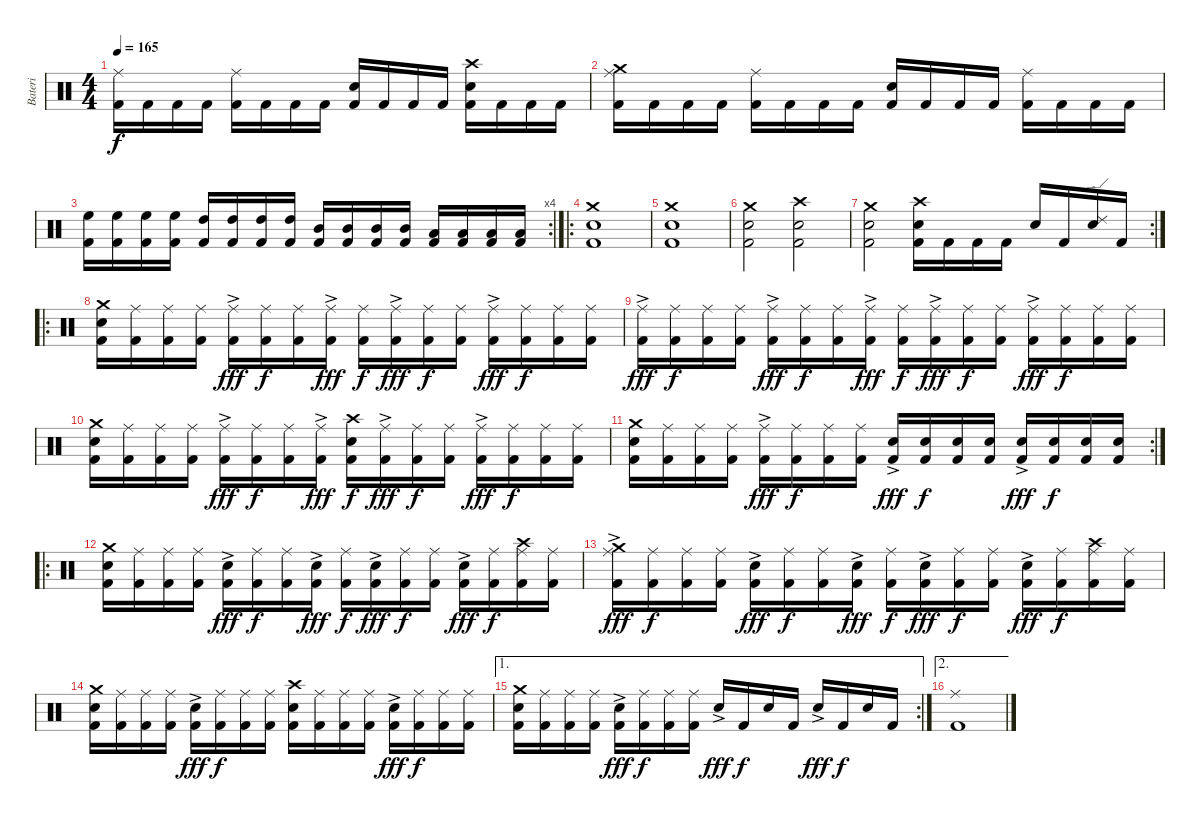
\track ("Bateri" "Bateri") {instrument percussion}
\staff {score}
\articulation defaults
\ts (4 4)
\tempo 165
\clef neutral
\ks c
("Ride (middle)" "Kick (hit) 2").16{dy f} "Kick (hit) 2".16 "Kick (hit) 2".16 "Kick (hit) 2".16 ("Ride (middle)" "Kick (hit) 2").16 "Kick (hit) 2".16 "Kick (hit) 2".16 "Kick (hit) 2".16 ("Snare (hit) 2" "Kick (hit) 2").16 "Kick (hit) 2".16 "Kick (hit) 2".16 "Kick (hit) 2".16 ("Crash high (hit)" "Snare (hit) 2" "Kick (hit) 2").16 "Kick (hit) 2".16 "Kick (hit) 2".16 "Kick (hit) 2".16 |
("Crash medium (hit)" "Ride (middle)" "Kick (hit) 2").16 "Kick (hit) 2".16 "Kick (hit) 2".16 "Kick (hit) 2".16 ("Ride (middle)" "Kick (hit) 2").16 "Kick (hit) 2".16 "Kick (hit) 2".16 "Kick (hit) 2".16 ("Snare (hit) 2" "Kick (hit) 2").16 "Kick (hit) 2".16 "Kick (hit) 2".16 "Kick (hit) 2".16 ("Ride (middle)" "Kick (hit) 2").16 "Kick (hit) 2".16 "Kick (hit) 2".16 "Kick (hit) 2".16 |
\rc 4
("High Floor Tom (hit)" "Kick (hit) 2").16 ("High Floor Tom (hit)" "Kick (hit) 2").16 ("High Floor Tom (hit)" "Kick (hit) 2").16 ("High Floor Tom (hit)" "Kick (hit) 2").16 ("High Tom (hit)" "Kick (hit) 2").16 ("High Tom (hit)" "Kick (hit) 2").16 ("High Tom (hit)" "Kick (hit) 2").16 ("High Tom (hit)" "Kick (hit) 2").16 ("Mid Tom (hit)" "Kick (hit) 2").16 ("Mid Tom (hit)" "Kick (hit) 2").16 ("Mid Tom (hit)" "Kick (hit) 2").16 ("Mid Tom (hit)" "Kick (hit) 2").16 ("Low Tom (hit)" "Kick (hit) 2").16 ("Low Tom (hit)" "Kick (hit) 2").16 ("Low Tom (hit)" "Kick (hit) 2").16 ("Low Tom (hit)" "Kick (hit) 2").16 |
\ro
("Crash medium (hit)" "Snare (hit) 2" "Kick (hit) 2").1 |
("Crash medium (hit)" "Snare (hit) 2" "Kick (hit) 2").1 |
("Crash medium (hit)" "Snare (hit) 2" "Kick (hit) 2").2 ("Crash high (hit)" "Snare (hit) 2" "Kick (hit) 2").2 |
\rc 2
("Crash medium (hit)" "Snare (hit) 2" "Kick (hit) 2").2 ("Crash high (hit)" "Snare (hit) 2" "Kick (hit) 2").16 "Kick (hit) 2".16 "Kick (hit) 2".16 "Kick (hit) 2".16 "Snare (hit) 2".16 "Kick (hit) 2".16 ("Ride (edge) 2" "Snare (hit) 2").16 "Kick (hit) 2".16 |
\ro
("Crash medium (hit)" "Snare (hit) 2" "Kick (hit) 2").16 ("Ride (middle)" "Kick (hit) 2").16 ("Ride (middle)" "Kick (hit) 2").16 ("Ride (middle)" "Kick (hit) 2").16 ("Ride (middle)"{ac} "Kick (hit) 2").16{dy fff} ("Ride (middle)" "Kick (hit) 2").16{dy f} ("Ride (middle)" "Kick (hit) 2").16 ("Ride (middle)"{ac} "Kick (hit) 2").16{dy fff} ("Ride (middle)" "Kick (hit) 2").16{dy f} ("Ride (middle)"{ac} "Kick (hit) 2").16{dy fff} ("Ride (middle)" "Kick (hit) 2").16{dy f} ("Ride (middle)" "Kick (hit) 2").16 ("Ride (middle)"{ac} "Kick (hit) 2").16{dy fff} ("Ride (middle)" "Kick (hit) 2").16{dy f} ("Ride (middle)" "Kick (hit) 2").16 ("Ride (middle)" "Kick (hit) 2").16 |
("Ride (middle)"{ac} "Kick (hit) 2").16{dy fff} ("Ride (middle)" "Kick (hit) 2").16{dy f} ("Ride (middle)" "Kick (hit) 2").16 ("Ride (middle)" "Kick (hit) 2").16 ("Ride (middle)"{ac} "Kick (hit) 2").16{dy fff} ("Ride (middle)" "Kick (hit) 2").16{dy f} ("Ride (middle)" "Kick (hit) 2").16 ("Ride (middle)"{ac} "Kick (hit) 2").16{dy fff} ("Ride (middle)" "Kick (hit) 2").16{dy f} ("Ride (middle)"{ac} "Kick (hit) 2").16{dy fff} ("Ride (middle)" "Kick (hit) 2").16{dy f} ("Ride (middle)" "Kick (hit) 2").16 ("Ride (middle)"{ac} "Kick (hit) 2").16{dy fff} ("Ride (middle)" "Kick (hit) 2").16{dy f} ("Ride (middle)" "Kick (hit) 2").16 ("Ride (middle)" "Kick (hit) 2").16 |
("Crash medium (hit)" "Snare (hit) 2" "Kick (hit) 2").16 ("Ride (middle)" "Kick (hit) 2").16 ("Ride (middle)" "Kick (hit) 2").16 ("Ride (middle)" "Kick (hit) 2").16 ("Ride (middle)"{ac} "Kick (hit) 2").16{dy fff} ("Ride (middle)" "Kick (hit) 2").16{dy f} ("Ride (middle)" "Kick (hit) 2").16 ("Ride (middle)"{ac} "Kick (hit) 2").16{dy fff} ("Crash high (hit)" "Snare (hit) 2" "Kick (hit) 2").16{dy f} ("Ride (middle)"{ac} "Kick (hit) 2").16{dy fff} ("Ride (middle)" "Kick (hit) 2").16{dy f} ("Ride (middle)" "Kick (hit) 2").16 ("Ride (middle)"{ac} "Kick (hit) 2").16{dy fff} ("Ride (middle)" "Kick (hit) 2").16{dy f} ("Ride (middle)" "Kick (hit) 2").16 ("Ride (middle)" "Kick (hit) 2").16 |
\rc 2
("Crash medium (hit)" "Snare (hit) 2" "Kick (hit) 2").16 ("Ride (middle)" "Kick (hit) 2").16 ("Ride (middle)" "Kick (hit) 2").16 ("Ride (middle)" "Kick (hit) 2").16 ("Ride (middle)"{ac} "Kick (hit) 2").16{dy fff} ("Ride (middle)" "Kick (hit) 2").16{dy f} ("Ride (middle)" "Kick (hit) 2").16 ("Ride (middle)" "Kick (hit) 2").16 ("Snare (hit) 2"{ac} "Kick (hit) 2").16{dy fff} ("Snare (hit) 2" "Kick (hit) 2").16{dy f} ("Snare (hit) 2" "Kick (hit) 2").16 ("Snare (hit) 2" "Kick (hit) 2").16 ("Snare (hit) 2"{ac} "Kick (hit) 2").16{dy fff} ("Snare (hit) 2" "Kick (hit) 2").16{dy f} ("Snare (hit) 2" "Kick (hit) 2").16 ("Snare (hit) 2" "Kick (hit) 2").16 |
\ro
("Crash medium (hit)" "Snare (hit) 2" "Kick (hit) 2").16 ("Ride (middle)" "Kick (hit) 2").16 ("Ride (middle)" "Kick (hit) 2").16 ("Ride (middle)" "Kick (hit) 2").16 ("Snare (hit) 2"{ac} "Kick (hit) 2").16{dy fff} ("Ride (middle)" "Kick (hit) 2").16{dy f} ("Ride (middle)" "Kick (hit) 2").16 ("Snare (hit) 2"{ac} "Kick (hit) 2").16{dy fff} ("Ride (middle)" "Kick (hit) 2").16{dy f} ("Snare (hit) 2"{ac} "Kick (hit) 2").16{dy fff} ("Ride (middle)" "Kick (hit) 2").16{dy f} ("Ride (middle)" "Kick (hit) 2").16 ("Snare (hit) 2"{ac} "Kick (hit) 2").16{dy fff} ("Ride (middle)" "Kick (hit) 2").16{dy f} ("Crash high (hit)" "Ride (middle)" "Kick (hit) 2").16 ("Ride (middle)" "Kick (hit) 2").16 |
("Crash medium (hit)" "Ride (middle)"{ac} "Kick (hit) 2").16{dy fff} ("Ride (middle)" "Kick (hit) 2").16{dy f} ("Ride (middle)" "Kick (hit) 2").16 ("Ride (middle)" "Kick (hit) 2").16 ("Snare (hit) 2"{ac} "Kick (hit) 2").16{dy fff} ("Ride (middle)" "Kick (hit) 2").16{dy f} ("Ride (middle)" "Kick (hit) 2").16 ("Snare (hit) 2"{ac} "Kick (hit) 2").16{dy fff} ("Ride (middle)" "Kick (hit) 2").16{dy f} ("Snare (hit) 2"{ac} "Kick (hit) 2").16{dy fff} ("Ride (middle)" "Kick (hit) 2").16{dy f} ("Ride (middle)" "Kick (hit) 2").16 ("Snare (hit) 2"{ac} "Kick (hit) 2").16{dy fff} ("Ride (middle)" "Kick (hit) 2").16{dy f} ("Crash high (hit)" "Ride (middle)" "Kick (hit) 2").16 ("Ride (middle)" "Kick (hit) 2").16 |
("Crash medium (hit)" "Snare (hit) 2" "Kick (hit) 2").16 ("Ride (middle)" "Kick (hit) 2").16 ("Ride (middle)" "Kick (hit) 2").16 ("Ride (middle)" "Kick (hit) 2").16 ("Snare (hit) 2"{ac} "Kick (hit) 2").16{dy fff} ("Ride (middle)" "Kick (hit) 2").16{dy f} ("Ride (middle)" "Kick (hit) 2").16 ("Ride (middle)" "Kick (hit) 2").16 ("Crash high (hit)" "Snare (hit) 2" "Kick (hit) 2").16 ("Ride (middle)" "Kick (hit) 2").16 ("Ride (middle)" "Kick (hit) 2").16 ("Ride (middle)" "Kick (hit) 2").16 ("Snare (hit) 2"{ac} "Kick (hit) 2").16{dy fff} ("Ride (middle)" "Kick (hit) 2").16{dy f} ("Ride (middle)" "Kick (hit) 2").16 ("Ride (middle)" "Kick (hit) 2").16 |
\ae 1
\rc 2
("Crash medium (hit)" "Snare (hit) 2" "Kick (hit) 2").16 ("Ride (middle)" "Kick (hit) 2").16 ("Ride (middle)" "Kick (hit) 2").16 ("Ride (middle)" "Kick (hit) 2").16 ("Snare (hit) 2"{ac} "Kick (hit) 2").16{dy fff} ("Ride (middle)" "Kick (hit) 2").16{dy f} ("Ride (middle)" "Kick (hit) 2").16 ("Ride (middle)" "Kick (hit) 2").16 "Snare (hit) 2"{ac}.16{dy fff} "Kick (hit) 2".16{dy f} "Snare (hit) 2".16 "Kick (hit) 2".16 "Snare (hit) 2"{ac}.16{dy fff} "Kick (hit) 2".16{dy f} "Snare (hit) 2".16 "Kick (hit) 2".16 |
\ae 2
("Ride (middle)" "Kick (hit) 2").1
